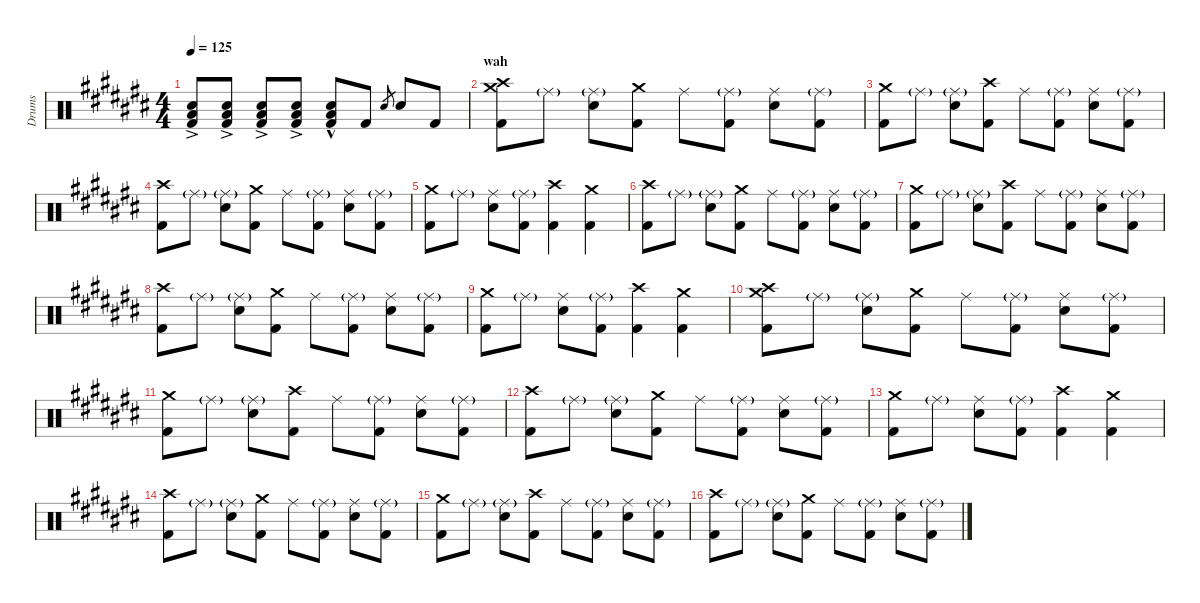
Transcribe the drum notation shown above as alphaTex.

\hideDynamics
\bracketExtendMode nobrackets
\otherSystemsTrackNameOrientation horizontal
\track ("Drumkit" "Drums") {defaultSystemsLayout 4 instrument percussion}
\staff {score}
\articulation defaults
\ts (4 4)
\tempo 125
\clef neutral
\ks c#
("Low Tom (hit)"{ac acc forcenatural} "Snare (hit) 2"{acc forcenatural} "Kick (hit) 2"{acc forcenatural}).8{dy f beam Up} ("Low Tom (hit)"{ac acc forcenatural} "Snare (hit) 2"{acc forcenatural} "Kick (hit) 2"{acc forcenatural}).8{beam Up} ("Low Tom (hit)"{ac acc forcenatural} "Snare (hit) 2"{acc forcenatural} "Kick (hit) 2"{acc forcenatural}).8{dy ff beam Up} ("Low Tom (hit)"{ac acc forcenatural} "Snare (hit) 2"{acc forcenatural} "Kick (hit) 2"{acc forcenatural}).8{beam Up} ("Low Tom (hit)"{hac acc forcenatural} "Snare (hit) 2"{acc forcenatural} "Kick (hit) 2"{acc forcenatural}).8{beam Up} "Kick (hit) 2"{acc forcenatural}.8{beam Up} "Snare (hit) 2"{acc forcenatural}.8{gr beam Up} "Snare (hit) 2"{acc forcenatural}.8{beam Up} "Kick (hit) 2"{acc forcenatural}.8{beam Up} |
\section ("" "wah")
("Kick (hit) 2"{acc forcenatural} "Crash high (hit)"{acc forcenatural} "Crash medium (hit)"{acc forcenatural}).8{beam Down} "Ride (middle)"{g acc forcenatural}.8{beam Down} ("Ride (middle)"{g acc forcenatural} "Snare (hit) 2"{acc forcenatural}).8{beam Down} ("Kick (hit) 2"{acc forcenatural} "Crash medium (hit)"{acc forcenatural}).8{beam Down} "Ride (middle)"{acc forcenatural}.8{beam Down} ("Ride (middle)"{g acc forcenatural} "Kick (hit) 2"{acc forcenatural}).8{beam Down} ("Ride (middle)"{acc forcenatural} "Snare (hit) 2"{acc forcenatural}).8{beam Down} ("Ride (middle)"{g acc forcenatural} "Kick (hit) 2"{acc forcenatural}).8{beam Down} |
("Crash medium (hit)"{acc forcenatural} "Kick (hit) 2"{acc forcenatural}).8{beam Down} "Ride (middle)"{g acc forcenatural}.8{beam Down} ("Ride (middle)"{g acc forcenatural} "Snare (hit) 2"{acc forcenatural}).8{beam Down} ("Crash high (hit)"{acc forcenatural} "Kick (hit) 2"{acc forcenatural}).8{beam Down} "Ride (middle)"{acc forcenatural}.8{beam Down} ("Ride (middle)"{g acc forcenatural} "Kick (hit) 2"{acc forcenatural}).8{beam Down} ("Ride (middle)"{acc forcenatural} "Snare (hit) 2"{acc forcenatural}).8{beam Down} ("Ride (middle)"{g acc forcenatural} "Kick (hit) 2"{acc forcenatural}).8{beam Down} |
("Kick (hit) 2"{acc forcenatural} "Crash high (hit)"{acc forcenatural}).8{beam Down} "Ride (middle)"{g acc forcenatural}.8{beam Down} ("Ride (middle)"{g acc forcenatural} "Snare (hit) 2"{acc forcenatural}).8{beam Down} ("Kick (hit) 2"{acc forcenatural} "Crash medium (hit)"{acc forcenatural}).8{beam Down} "Ride (middle)"{acc forcenatural}.8{beam Down} ("Ride (middle)"{g acc forcenatural} "Kick (hit) 2"{acc forcenatural}).8{beam Down} ("Ride (middle)"{acc forcenatural} "Snare (hit) 2"{acc forcenatural}).8{beam Down} ("Ride (middle)"{g acc forcenatural} "Kick (hit) 2"{acc forcenatural}).8{beam Down} |
("Crash medium (hit)"{acc forcenatural} "Kick (hit) 2"{acc forcenatural}).8{beam Down} "Ride (middle)"{g acc forcenatural}.8{beam Down} ("Ride (middle)"{acc forcenatural} "Snare (hit) 2"{acc forcenatural}).8{beam Down} ("Ride (middle)"{g acc forcenatural} "Kick (hit) 2"{acc forcenatural}).8{beam Down} ("Crash high (hit)"{acc forcenatural} "Kick (hit) 2"{acc forcenatural}).4{beam Down} ("Kick (hit) 2"{acc forcenatural} "Crash medium (hit)"{acc forcenatural}).4{beam Down} |
("Kick (hit) 2"{acc forcenatural} "Crash high (hit)"{acc forcenatural}).8{beam Down} "Ride (middle)"{g acc forcenatural}.8{beam Down} ("Ride (middle)"{g acc forcenatural} "Snare (hit) 2"{acc forcenatural}).8{beam Down} ("Kick (hit) 2"{acc forcenatural} "Crash medium (hit)"{acc forcenatural}).8{beam Down} "Ride (middle)"{acc forcenatural}.8{beam Down} ("Ride (middle)"{g acc forcenatural} "Kick (hit) 2"{acc forcenatural}).8{beam Down} ("Ride (middle)"{acc forcenatural} "Snare (hit) 2"{acc forcenatural}).8{beam Down} ("Ride (middle)"{g acc forcenatural} "Kick (hit) 2"{acc forcenatural}).8{beam Down} |
("Crash medium (hit)"{acc forcenatural} "Kick (hit) 2"{acc forcenatural}).8{beam Down} "Ride (middle)"{g acc forcenatural}.8{beam Down} ("Ride (middle)"{g acc forcenatural} "Snare (hit) 2"{acc forcenatural}).8{beam Down} ("Crash high (hit)"{acc forcenatural} "Kick (hit) 2"{acc forcenatural}).8{beam Down} "Ride (middle)"{acc forcenatural}.8{beam Down} ("Ride (middle)"{g acc forcenatural} "Kick (hit) 2"{acc forcenatural}).8{beam Down} ("Ride (middle)"{acc forcenatural} "Snare (hit) 2"{acc forcenatural}).8{beam Down} ("Ride (middle)"{g acc forcenatural} "Kick (hit) 2"{acc forcenatural}).8{beam Down} |
("Kick (hit) 2"{acc forcenatural} "Crash high (hit)"{acc forcenatural}).8{beam Down} "Ride (middle)"{g acc forcenatural}.8{beam Down} ("Ride (middle)"{g acc forcenatural} "Snare (hit) 2"{acc forcenatural}).8{beam Down} ("Kick (hit) 2"{acc forcenatural} "Crash medium (hit)"{acc forcenatural}).8{beam Down} "Ride (middle)"{acc forcenatural}.8{beam Down} ("Ride (middle)"{g acc forcenatural} "Kick (hit) 2"{acc forcenatural}).8{beam Down} ("Ride (middle)"{acc forcenatural} "Snare (hit) 2"{acc forcenatural}).8{beam Down} ("Ride (middle)"{g acc forcenatural} "Kick (hit) 2"{acc forcenatural}).8{beam Down} |
("Crash medium (hit)"{acc forcenatural} "Kick (hit) 2"{acc forcenatural}).8{beam Down} "Ride (middle)"{g acc forcenatural}.8{beam Down} ("Ride (middle)"{acc forcenatural} "Snare (hit) 2"{acc forcenatural}).8{beam Down} ("Ride (middle)"{g acc forcenatural} "Kick (hit) 2"{acc forcenatural}).8{beam Down} ("Crash high (hit)"{acc forcenatural} "Kick (hit) 2"{acc forcenatural}).4{beam Down} ("Kick (hit) 2"{acc forcenatural} "Crash medium (hit)"{acc forcenatural}).4{beam Down} |
("Kick (hit) 2"{acc forcenatural} "Crash high (hit)"{acc forcenatural} "Crash medium (hit)"{acc forcenatural}).8{beam Down} "Ride (middle)"{g acc forcenatural}.8{beam Down} ("Ride (middle)"{g acc forcenatural} "Snare (hit) 2"{acc forcenatural}).8{beam Down} ("Kick (hit) 2"{acc forcenatural} "Crash medium (hit)"{acc forcenatural}).8{beam Down} "Ride (middle)"{acc forcenatural}.8{beam Down} ("Ride (middle)"{g acc forcenatural} "Kick (hit) 2"{acc forcenatural}).8{beam Down} ("Ride (middle)"{acc forcenatural} "Snare (hit) 2"{acc forcenatural}).8{beam Down} ("Ride (middle)"{g acc forcenatural} "Kick (hit) 2"{acc forcenatural}).8{beam Down} |
("Crash medium (hit)"{acc forcenatural} "Kick (hit) 2"{acc forcenatural}).8{beam Down} "Ride (middle)"{g acc forcenatural}.8{beam Down} ("Ride (middle)"{g acc forcenatural} "Snare (hit) 2"{acc forcenatural}).8{beam Down} ("Crash high (hit)"{acc forcenatural} "Kick (hit) 2"{acc forcenatural}).8{beam Down} "Ride (middle)"{acc forcenatural}.8{beam Down} ("Ride (middle)"{g acc forcenatural} "Kick (hit) 2"{acc forcenatural}).8{beam Down} ("Ride (middle)"{acc forcenatural} "Snare (hit) 2"{acc forcenatural}).8{beam Down} ("Ride (middle)"{g acc forcenatural} "Kick (hit) 2"{acc forcenatural}).8{beam Down} |
("Kick (hit) 2"{acc forcenatural} "Crash high (hit)"{acc forcenatural}).8{beam Down} "Ride (middle)"{g acc forcenatural}.8{beam Down} ("Ride (middle)"{g acc forcenatural} "Snare (hit) 2"{acc forcenatural}).8{beam Down} ("Kick (hit) 2"{acc forcenatural} "Crash medium (hit)"{acc forcenatural}).8{beam Down} "Ride (middle)"{acc forcenatural}.8{beam Down} ("Ride (middle)"{g acc forcenatural} "Kick (hit) 2"{acc forcenatural}).8{beam Down} ("Ride (middle)"{acc forcenatural} "Snare (hit) 2"{acc forcenatural}).8{beam Down} ("Ride (middle)"{g acc forcenatural} "Kick (hit) 2"{acc forcenatural}).8{beam Down} |
("Crash medium (hit)"{acc forcenatural} "Kick (hit) 2"{acc forcenatural}).8{beam Down} "Ride (middle)"{g acc forcenatural}.8{beam Down} ("Ride (middle)"{acc forcenatural} "Snare (hit) 2"{acc forcenatural}).8{beam Down} ("Ride (middle)"{g acc forcenatural} "Kick (hit) 2"{acc forcenatural}).8{beam Down} ("Crash high (hit)"{acc forcenatural} "Kick (hit) 2"{acc forcenatural}).4{beam Down} ("Kick (hit) 2"{acc forcenatural} "Crash medium (hit)"{acc forcenatural}).4{beam Down} |
("Kick (hit) 2"{acc forcenatural} "Crash high (hit)"{acc forcenatural}).8{beam Down} "Ride (middle)"{g acc forcenatural}.8{beam Down} ("Ride (middle)"{g acc forcenatural} "Snare (hit) 2"{acc forcenatural}).8{beam Down} ("Kick (hit) 2"{acc forcenatural} "Crash medium (hit)"{acc forcenatural}).8{beam Down} "Ride (middle)"{acc forcenatural}.8{beam Down} ("Ride (middle)"{g acc forcenatural} "Kick (hit) 2"{acc forcenatural}).8{beam Down} ("Ride (middle)"{acc forcenatural} "Snare (hit) 2"{acc forcenatural}).8{beam Down} ("Ride (middle)"{g acc forcenatural} "Kick (hit) 2"{acc forcenatural}).8{beam Down} |
("Crash medium (hit)"{acc forcenatural} "Kick (hit) 2"{acc forcenatural}).8{beam Down} "Ride (middle)"{g acc forcenatural}.8{beam Down} ("Ride (middle)"{g acc forcenatural} "Snare (hit) 2"{acc forcenatural}).8{beam Down} ("Crash high (hit)"{acc forcenatural} "Kick (hit) 2"{acc forcenatural}).8{beam Down} "Ride (middle)"{acc forcenatural}.8{beam Down} ("Ride (middle)"{g acc forcenatural} "Kick (hit) 2"{acc forcenatural}).8{beam Down} ("Ride (middle)"{acc forcenatural} "Snare (hit) 2"{acc forcenatural}).8{beam Down} ("Ride (middle)"{g acc forcenatural} "Kick (hit) 2"{acc forcenatural}).8{beam Down} |
("Kick (hit) 2"{acc forcenatural} "Crash high (hit)"{acc forcenatural}).8{beam Down} "Ride (middle)"{g acc forcenatural}.8{beam Down} ("Ride (middle)"{g acc forcenatural} "Snare (hit) 2"{acc forcenatural}).8{beam Down} ("Kick (hit) 2"{acc forcenatural} "Crash medium (hit)"{acc forcenatural}).8{beam Down} "Ride (middle)"{acc forcenatural}.8{beam Down} ("Ride (middle)"{g acc forcenatural} "Kick (hit) 2"{acc forcenatural}).8{beam Down} ("Ride (middle)"{acc forcenatural} "Snare (hit) 2"{acc forcenatural}).8{beam Down} ("Ride (middle)"{g acc forcenatural} "Kick (hit) 2"{acc forcenatural}).8{beam Down}
